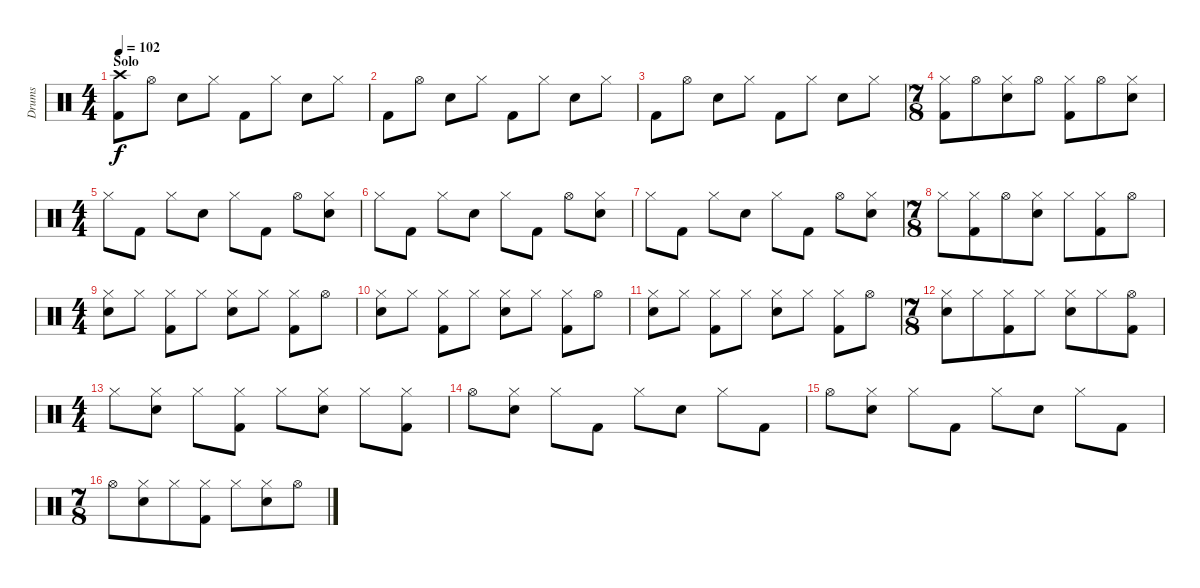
\track ("Drums" "Drums") {instrument percussion}
\staff {score}
\articulation defaults
\ts (4 4)
\section ("" "Solo")
\tempo 102
\clef neutral
\ks c
("Crash high (hit)" "Kick (hit) 2").8{dy f} "Hi-Hat (open)".8 "Snare (hit) 2".8 "Hi-Hat (closed)".8 "Kick (hit) 2".8 "Hi-Hat (closed)".8 "Snare (hit) 2".8 "Hi-Hat (closed)".8 |
"Kick (hit) 2".8 "Hi-Hat (open)".8 "Snare (hit) 2".8 "Hi-Hat (closed)".8 "Kick (hit) 2".8 "Hi-Hat (closed)".8 "Snare (hit) 2".8 "Hi-Hat (closed)".8 |
"Kick (hit) 2".8 "Hi-Hat (open)".8 "Snare (hit) 2".8 "Hi-Hat (closed)".8 "Kick (hit) 2".8 "Hi-Hat (closed)".8 "Snare (hit) 2".8 "Hi-Hat (closed)".8 |
\ts (7 8)
("Hi-Hat (closed)" "Kick (hit) 2").8 "Hi-Hat (open)".8 ("Hi-Hat (closed)" "Snare (hit) 2").8 "Hi-Hat (open)".8 ("Hi-Hat (closed)" "Kick (hit) 2").8 "Hi-Hat (open)".8 ("Hi-Hat (closed)" "Snare (hit) 2").8 |
\ts (4 4)
"Hi-Hat (closed)".8 "Kick (hit) 2".8 "Hi-Hat (closed)".8 "Snare (hit) 2".8 "Hi-Hat (closed)".8 "Kick (hit) 2".8 "Hi-Hat (open)".8 ("Hi-Hat (closed)" "Snare (hit) 2").8 |
"Hi-Hat (closed)".8 "Kick (hit) 2".8 "Hi-Hat (closed)".8 "Snare (hit) 2".8 "Hi-Hat (closed)".8 "Kick (hit) 2".8 "Hi-Hat (open)".8 ("Hi-Hat (closed)" "Snare (hit) 2").8 |
"Hi-Hat (closed)".8 "Kick (hit) 2".8 "Hi-Hat (closed)".8 "Snare (hit) 2".8 "Hi-Hat (closed)".8 "Kick (hit) 2".8 "Hi-Hat (open)".8 ("Hi-Hat (closed)" "Snare (hit) 2").8 |
\ts (7 8)
"Hi-Hat (closed)".8 ("Hi-Hat (closed)" "Kick (hit) 2").8 "Hi-Hat (open)".8 ("Hi-Hat (closed)" "Snare (hit) 2").8 "Hi-Hat (closed)".8 ("Hi-Hat (closed)" "Kick (hit) 2").8 "Hi-Hat (open)".8 |
\ts (4 4)
("Hi-Hat (closed)" "Snare (hit) 2").8 "Hi-Hat (closed)".8 ("Hi-Hat (closed)" "Kick (hit) 2").8 "Hi-Hat (closed)".8 ("Hi-Hat (closed)" "Snare (hit) 2").8 "Hi-Hat (closed)".8 ("Hi-Hat (closed)" "Kick (hit) 2").8 "Hi-Hat (open)".8 |
("Hi-Hat (closed)" "Snare (hit) 2").8 "Hi-Hat (closed)".8 ("Hi-Hat (closed)" "Kick (hit) 2").8 "Hi-Hat (closed)".8 ("Hi-Hat (closed)" "Snare (hit) 2").8 "Hi-Hat (closed)".8 ("Hi-Hat (closed)" "Kick (hit) 2").8 "Hi-Hat (open)".8 |
("Hi-Hat (closed)" "Snare (hit) 2").8 "Hi-Hat (closed)".8 ("Hi-Hat (closed)" "Kick (hit) 2").8 "Hi-Hat (closed)".8 ("Hi-Hat (closed)" "Snare (hit) 2").8 "Hi-Hat (closed)".8 ("Hi-Hat (closed)" "Kick (hit) 2").8 "Hi-Hat (open)".8 |
\ts (7 8)
("Hi-Hat (closed)" "Snare (hit) 2").8 "Hi-Hat (closed)".8 ("Hi-Hat (closed)" "Kick (hit) 2").8 "Hi-Hat (closed)".8 ("Hi-Hat (closed)" "Snare (hit) 2").8 "Hi-Hat (closed)".8 ("Hi-Hat (open)" "Kick (hit) 2").8 |
\ts (4 4)
"Hi-Hat (closed)".8 ("Hi-Hat (closed)" "Snare (hit) 2").8 "Hi-Hat (closed)".8 ("Hi-Hat (closed)" "Kick (hit) 2").8 "Hi-Hat (closed)".8 ("Hi-Hat (closed)" "Snare (hit) 2").8 "Hi-Hat (closed)".8 ("Hi-Hat (closed)" "Kick (hit) 2").8 |
"Hi-Hat (open)".8 ("Hi-Hat (closed)" "Snare (hit) 2").8 "Hi-Hat (closed)".8 "Kick (hit) 2".8 "Hi-Hat (closed)".8 "Snare (hit) 2".8 "Hi-Hat (closed)".8 "Kick (hit) 2".8 |
"Hi-Hat (open)".8 ("Hi-Hat (closed)" "Snare (hit) 2").8 "Hi-Hat (closed)".8 "Kick (hit) 2".8 "Hi-Hat (closed)".8 "Snare (hit) 2".8 "Hi-Hat (closed)".8 "Kick (hit) 2".8 |
\ts (7 8)
"Hi-Hat (open)".8 ("Hi-Hat (closed)" "Snare (hit) 2").8 "Hi-Hat (closed)".8 ("Hi-Hat (closed)" "Kick (hit) 2").8 "Hi-Hat (closed)".8 ("Hi-Hat (closed)" "Snare (hit) 2").8 "Hi-Hat (open)".8
